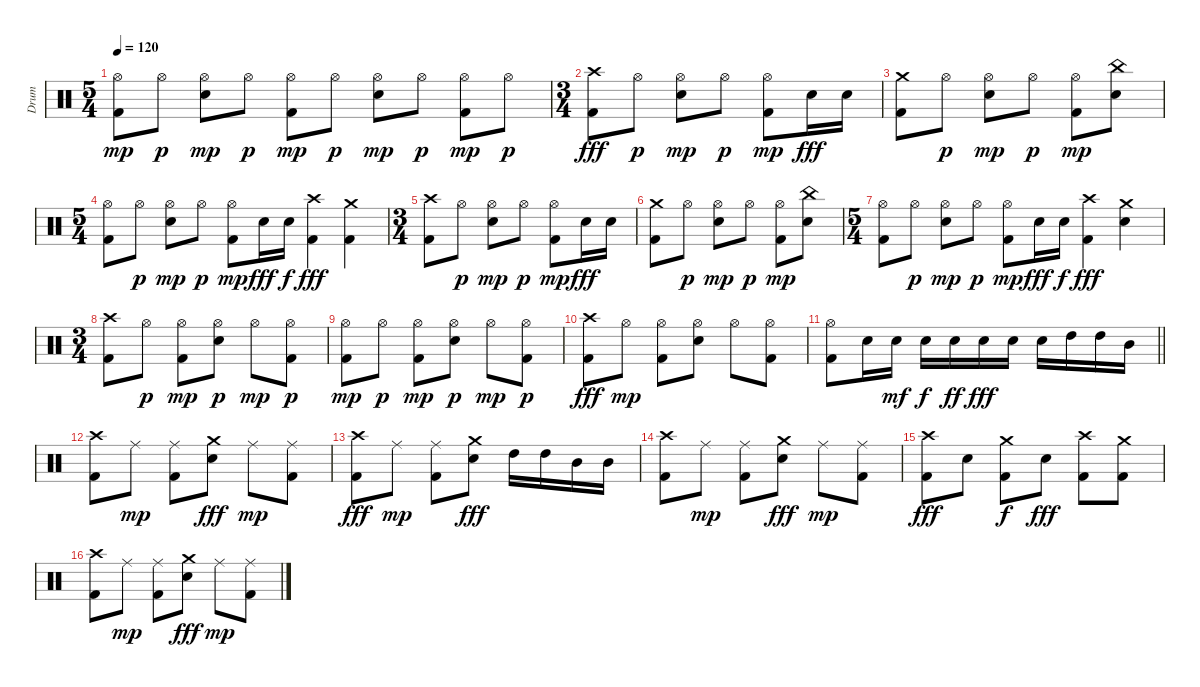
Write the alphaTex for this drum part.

\track ("Drum" "Drum") {instrument percussion}
\staff {score}
\articulation defaults
\ts (5 4)
\tempo 120
\clef neutral
\ks c
("Kick (hit) 2" "Hi-Hat (open)").8{dy mp} "Hi-Hat (open)".8{dy p} ("Electric Snare (hit)" "Hi-Hat (open)").8{dy mp} "Hi-Hat (open)".8{dy p} ("Kick (hit) 2" "Hi-Hat (open)").8{dy mp} "Hi-Hat (open)".8{dy p} ("Electric Snare (hit)" "Hi-Hat (open)").8{dy mp} "Hi-Hat (open)".8{dy p} ("Kick (hit) 2" "Hi-Hat (open)").8{dy mp} "Hi-Hat (open)".8{dy p} |
\ts (3 4)
("Kick (hit) 2" "Crash high (hit)").8{dy fff} "Hi-Hat (open)".8{dy p} ("Electric Snare (hit)" "Hi-Hat (open)").8{dy mp} "Hi-Hat (open)".8{dy p} ("Kick (hit) 2" "Hi-Hat (open)").8{dy mp} "Electric Snare (hit)".16{dy fff} "Electric Snare (hit)".16 |
("Kick (hit) 2" "Crash medium (hit)").8 "Hi-Hat (open)".8{dy p} ("Electric Snare (hit)" "Hi-Hat (open)").8{dy mp} "Hi-Hat (open)".8{dy p} ("Kick (hit) 2" "Hi-Hat (open)").8{dy mp} ("Electric Snare (hit)" "China (hit)").8 |
\ts (5 4)
("Kick (hit) 2" "Hi-Hat (open)").8 "Hi-Hat (open)".8{dy p} ("Electric Snare (hit)" "Hi-Hat (open)").8{dy mp} "Hi-Hat (open)".8{dy p} ("Kick (hit) 2" "Hi-Hat (open)").8{dy mp} "Electric Snare (hit)".16{dy fff} "Electric Snare (hit)".16{dy f} ("Kick (hit) 2" "Crash high (hit)").4{dy fff} ("Kick (hit) 2" "Crash medium (hit)").4 |
\ts (3 4)
("Kick (hit) 2" "Crash high (hit)").8 "Hi-Hat (open)".8{dy p} ("Electric Snare (hit)" "Hi-Hat (open)").8{dy mp} "Hi-Hat (open)".8{dy p} ("Kick (hit) 2" "Hi-Hat (open)").8{dy mp} "Electric Snare (hit)".16{dy fff} "Electric Snare (hit)".16 |
("Kick (hit) 2" "Crash medium (hit)").8 "Hi-Hat (open)".8{dy p} ("Electric Snare (hit)" "Hi-Hat (open)").8{dy mp} "Hi-Hat (open)".8{dy p} ("Kick (hit) 2" "Hi-Hat (open)").8{dy mp} ("Electric Snare (hit)" "China (hit)").8 |
\ts (5 4)
("Kick (hit) 2" "Hi-Hat (open)").8 "Hi-Hat (open)".8{dy p} ("Electric Snare (hit)" "Hi-Hat (open)").8{dy mp} "Hi-Hat (open)".8{dy p} ("Kick (hit) 2" "Hi-Hat (open)").8{dy mp} "Electric Snare (hit)".16{dy fff} "Electric Snare (hit)".16{dy f} ("Kick (hit) 2" "Crash high (hit)").4{dy fff} ("Electric Snare (hit)" "Crash medium (hit)").4 |
\ts (3 4)
("Kick (hit) 2" "Crash high (hit)").8 "Hi-Hat (open)".8{dy p} ("Kick (hit) 2" "Hi-Hat (open)").8{dy mp} ("Electric Snare (hit)" "Hi-Hat (open)").8{dy p} "Hi-Hat (open)".8{dy mp} ("Kick (hit) 2" "Hi-Hat (open)").8{dy p} |
("Kick (hit) 2" "Hi-Hat (open)").8{dy mp} "Hi-Hat (open)".8{dy p} ("Kick (hit) 2" "Hi-Hat (open)").8{dy mp} ("Electric Snare (hit)" "Hi-Hat (open)").8{dy p} "Hi-Hat (open)".8{dy mp} ("Kick (hit) 2" "Hi-Hat (open)").8{dy p} |
("Kick (hit) 2" "Crash high (hit)").8{dy fff} "Hi-Hat (open)".8{dy mp} ("Kick (hit) 2" "Hi-Hat (open)").8 ("Electric Snare (hit)" "Hi-Hat (open)").8 "Hi-Hat (open)".8 ("Kick (hit) 2" "Hi-Hat (open)").8 |
\barLineRight lightlight
("Kick (hit) 2" "Hi-Hat (open)").8 "Electric Snare (hit)".16 "Electric Snare (hit)".16{dy mf} "Electric Snare (hit)".16{dy f} "Electric Snare (hit)".16{dy ff} "Electric Snare (hit)".16{dy fff} "Electric Snare (hit)".16 "Electric Snare (hit)".16 "High Tom (hit)".16 "High Tom (hit)".16 "Mid Tom (hit)".16 |
("Kick (hit) 2" "Crash high (hit)").8 "Ride (middle)".8{dy mp} ("Kick (hit) 2" "Ride (middle)").8 ("Electric Snare (hit)" "Crash medium (hit)").8{dy fff} "Ride (middle)".8{dy mp} ("Kick (hit) 2" "Ride (middle)").8 |
("Kick (hit) 2" "Crash high (hit)").8{dy fff} "Ride (middle)".8{dy mp} ("Kick (hit) 2" "Ride (middle)").8 ("Electric Snare (hit)" "Crash medium (hit)").8{dy fff} "High Tom (hit)".16 "High Tom (hit)".16 "Mid Tom (hit)".16 "Mid Tom (hit)".16 |
("Kick (hit) 2" "Crash high (hit)").8 "Ride (middle)".8{dy mp} ("Kick (hit) 2" "Ride (middle)").8 ("Electric Snare (hit)" "Crash medium (hit)").8{dy fff} "Ride (middle)".8{dy mp} ("Kick (hit) 2" "Ride (middle)").8 |
("Kick (hit) 2" "Crash high (hit)").8{dy fff} "Electric Snare (hit)".8 ("Kick (hit) 2" "Crash medium (hit)").8{dy f} "Electric Snare (hit)".8{dy fff} ("Kick (hit) 2" "Crash high (hit)").8 ("Kick (hit) 2" "Crash medium (hit)").8 |
("Kick (hit) 2" "Crash high (hit)").8 "Ride (middle)".8{dy mp} ("Kick (hit) 2" "Ride (middle)").8 ("Electric Snare (hit)" "Crash medium (hit)").8{dy fff} "Ride (middle)".8{dy mp} ("Kick (hit) 2" "Ride (middle)").8
